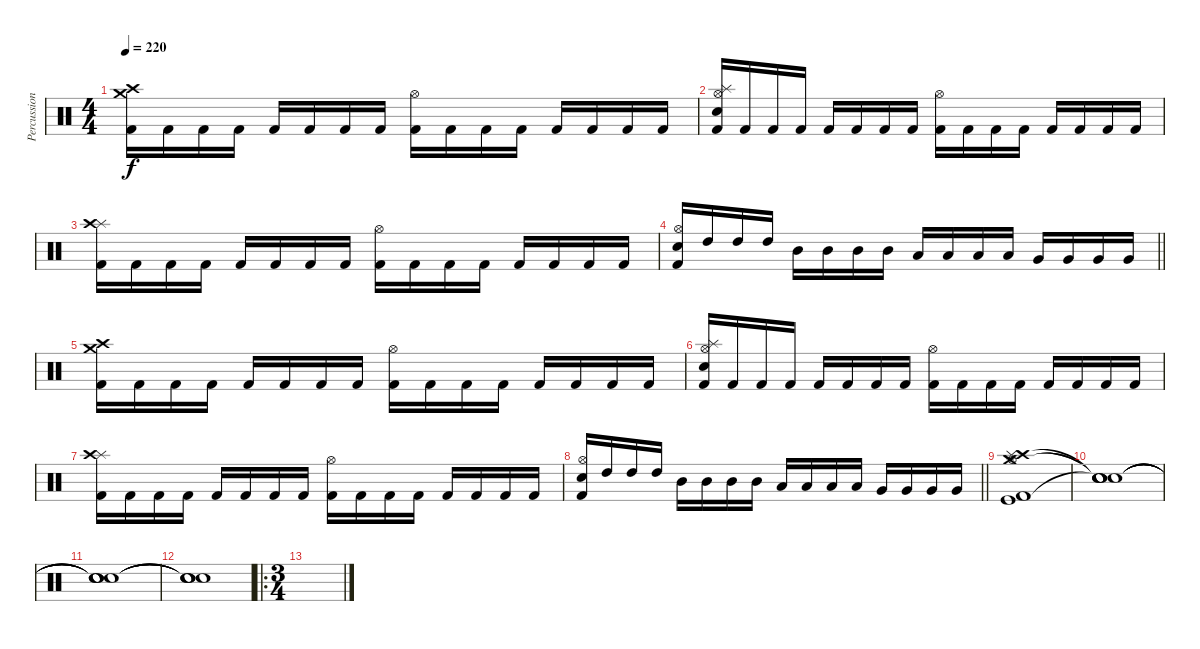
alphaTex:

\track ("Percussion" "Percussion") {instrument percussion}
\staff {score}
\articulation defaults
\ts (4 4)
\tempo 220
\clef neutral
\ks c
("Crash medium (hit)" "Crash high (hit)" "Kick (hit) 2").16{dy f} "Kick (hit) 2".16 "Kick (hit) 2".16 "Kick (hit) 2".16 "Kick (hit) 2".16 "Kick (hit) 2".16 "Kick (hit) 2".16 "Kick (hit) 2".16 ("Hi-Hat (open)" "Kick (hit) 2").16 "Kick (hit) 2".16 "Kick (hit) 2".16 "Kick (hit) 2".16 "Kick (hit) 2".16 "Kick (hit) 2".16 "Kick (hit) 2".16 "Kick (hit) 2".16 |
("Splash (hit)" "Hi-Hat (open)" "Electric Snare (hit)" "Kick (hit) 2").16 "Kick (hit) 2".16 "Kick (hit) 2".16 "Kick (hit) 2".16 "Kick (hit) 2".16 "Kick (hit) 2".16 "Kick (hit) 2".16 "Kick (hit) 2".16 ("Hi-Hat (open)" "Kick (hit) 2").16 "Kick (hit) 2".16 "Kick (hit) 2".16 "Kick (hit) 2".16 "Kick (hit) 2".16 "Kick (hit) 2".16 "Kick (hit) 2".16 "Kick (hit) 2".16 |
("Splash (hit)" "Crash high (hit)" "Kick (hit) 2").16 "Kick (hit) 2".16 "Kick (hit) 2".16 "Kick (hit) 2".16 "Kick (hit) 2".16 "Kick (hit) 2".16 "Kick (hit) 2".16 "Kick (hit) 2".16 ("Hi-Hat (open)" "Kick (hit) 2").16 "Kick (hit) 2".16 "Kick (hit) 2".16 "Kick (hit) 2".16 "Kick (hit) 2".16 "Kick (hit) 2".16 "Kick (hit) 2".16 "Kick (hit) 2".16 |
\barLineRight lightlight
("Hi-Hat (open)" "Electric Snare (hit)" "Kick (hit) 2").16 "High Tom (hit)".16 "High Tom (hit)".16 "High Tom (hit)".16 "Mid Tom (hit)".16 "Mid Tom (hit)".16 "Mid Tom (hit)".16 "Mid Tom (hit)".16 "Low Tom (hit)".16 "Low Tom (hit)".16 "Low Tom (hit)".16 "Low Tom (hit)".16 "Very Low Tom (hit)".16 "Very Low Tom (hit)".16 "Very Low Tom (hit)".16 "Very Low Tom (hit)".16 |
("Crash medium (hit)" "Crash high (hit)" "Kick (hit) 2").16 "Kick (hit) 2".16 "Kick (hit) 2".16 "Kick (hit) 2".16 "Kick (hit) 2".16 "Kick (hit) 2".16 "Kick (hit) 2".16 "Kick (hit) 2".16 ("Hi-Hat (open)" "Kick (hit) 2").16 "Kick (hit) 2".16 "Kick (hit) 2".16 "Kick (hit) 2".16 "Kick (hit) 2".16 "Kick (hit) 2".16 "Kick (hit) 2".16 "Kick (hit) 2".16 |
("Splash (hit)" "Hi-Hat (open)" "Electric Snare (hit)" "Kick (hit) 2").16 "Kick (hit) 2".16 "Kick (hit) 2".16 "Kick (hit) 2".16 "Kick (hit) 2".16 "Kick (hit) 2".16 "Kick (hit) 2".16 "Kick (hit) 2".16 ("Hi-Hat (open)" "Kick (hit) 2").16 "Kick (hit) 2".16 "Kick (hit) 2".16 "Kick (hit) 2".16 "Kick (hit) 2".16 "Kick (hit) 2".16 "Kick (hit) 2".16 "Kick (hit) 2".16 |
("Splash (hit)" "Crash high (hit)" "Kick (hit) 2").16 "Kick (hit) 2".16 "Kick (hit) 2".16 "Kick (hit) 2".16 "Kick (hit) 2".16 "Kick (hit) 2".16 "Kick (hit) 2".16 "Kick (hit) 2".16 ("Hi-Hat (open)" "Kick (hit) 2").16 "Kick (hit) 2".16 "Kick (hit) 2".16 "Kick (hit) 2".16 "Kick (hit) 2".16 "Kick (hit) 2".16 "Kick (hit) 2".16 "Kick (hit) 2".16 |
\barLineRight lightlight
("Hi-Hat (open)" "Electric Snare (hit)" "Kick (hit) 2").16 "High Tom (hit)".16 "High Tom (hit)".16 "High Tom (hit)".16 "Mid Tom (hit)".16 "Mid Tom (hit)".16 "Mid Tom (hit)".16 "Mid Tom (hit)".16 "Low Tom (hit)".16 "Low Tom (hit)".16 "Low Tom (hit)".16 "Low Tom (hit)".16 "Very Low Tom (hit)".16 "Very Low Tom (hit)".16 "Very Low Tom (hit)".16 "Very Low Tom (hit)".16 |
("Crash high (hit)" "Crash medium (hit)" "Hi-Hat (open)" "Kick (hit)" "Splash (hit)" "Kick (hit) 2").1 |
("Snare (hit)"{t} "Snare (hit)"{t} "Snare (hit)"{t} "Snare (hit)"{t}).1 |
("Snare (hit)"{t} "Snare (hit)"{t} "Snare (hit)"{t} "Snare (hit)"{t}).1 |
("Snare (hit)"{t} "Snare (hit)"{t} "Snare (hit)"{t} "Snare (hit)"{t}).1 |
\ro
\ts (3 4)
